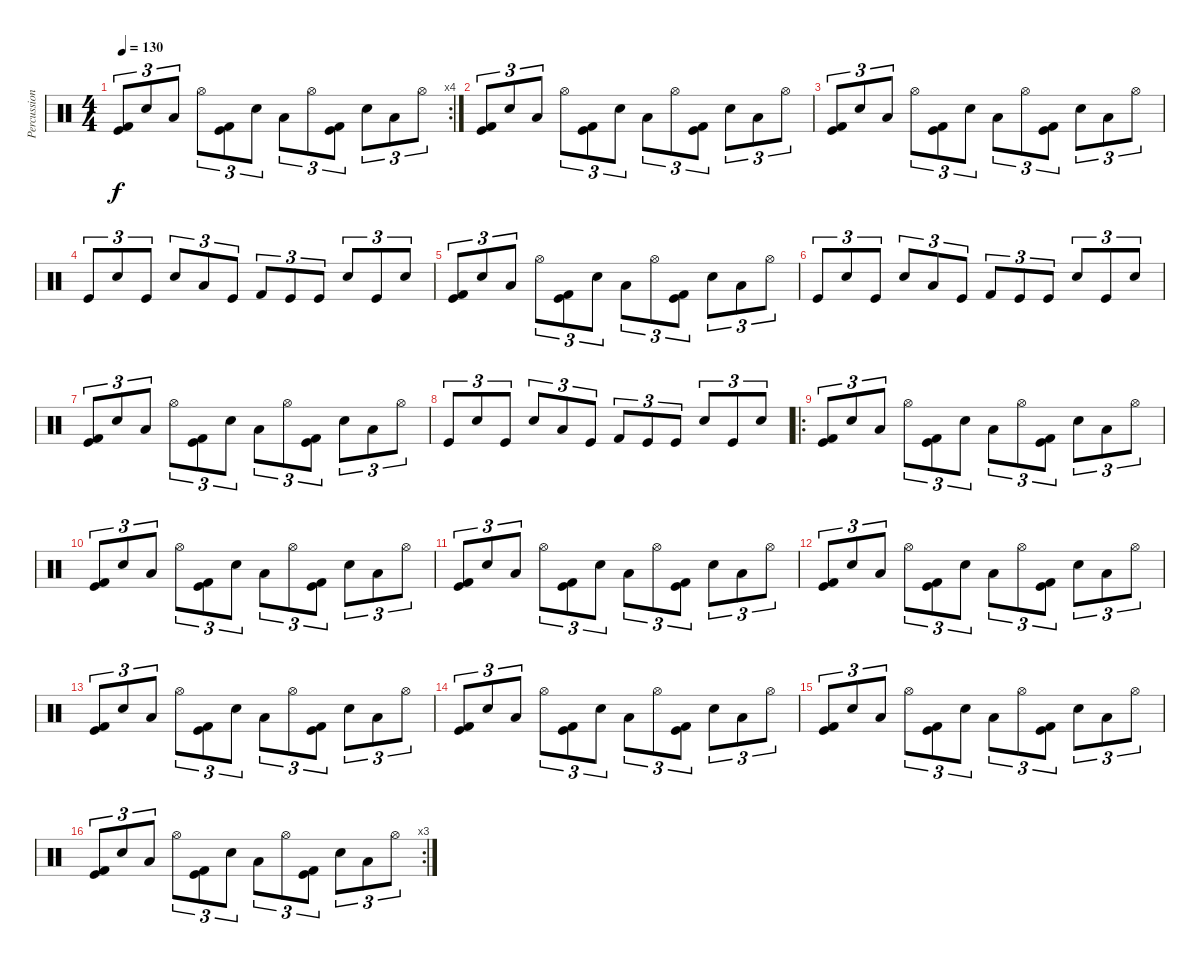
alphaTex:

\track ("Percussion" "Percussion") {instrument percussion}
\staff {score}
\articulation defaults
\rc 4
\ts (4 4)
\tempo 130
\clef neutral
\ks c
("Kick (hit)" "Kick (hit) 2").8{tu (3 2) dy f} "Snare (hit) 2".8{tu (3 2)} "Low Tom (hit)".8{tu (3 2)} "Hi-Hat (open)".8{tu (3 2)} ("Kick (hit)" "Kick (hit) 2").8{tu (3 2)} "Snare (hit) 2".8{tu (3 2)} "Low Tom (hit)".8{tu (3 2)} "Hi-Hat (open)".8{tu (3 2)} ("Kick (hit)" "Kick (hit) 2").8{tu (3 2)} "Snare (hit) 2".8{tu (3 2)} "Low Tom (hit)".8{tu (3 2)} "Hi-Hat (open)".8{tu (3 2)} |
("Kick (hit)" "Kick (hit) 2").8{tu (3 2)} "Snare (hit) 2".8{tu (3 2)} "Low Tom (hit)".8{tu (3 2)} "Hi-Hat (open)".8{tu (3 2)} ("Kick (hit)" "Kick (hit) 2").8{tu (3 2)} "Snare (hit) 2".8{tu (3 2)} "Low Tom (hit)".8{tu (3 2)} "Hi-Hat (open)".8{tu (3 2)} ("Kick (hit)" "Kick (hit) 2").8{tu (3 2)} "Snare (hit) 2".8{tu (3 2)} "Low Tom (hit)".8{tu (3 2)} "Hi-Hat (open)".8{tu (3 2)} |
("Kick (hit)" "Kick (hit) 2").8{tu (3 2)} "Snare (hit) 2".8{tu (3 2)} "Low Tom (hit)".8{tu (3 2)} "Hi-Hat (open)".8{tu (3 2)} ("Kick (hit)" "Kick (hit) 2").8{tu (3 2)} "Snare (hit) 2".8{tu (3 2)} "Low Tom (hit)".8{tu (3 2)} "Hi-Hat (open)".8{tu (3 2)} ("Kick (hit)" "Kick (hit) 2").8{tu (3 2)} "Snare (hit) 2".8{tu (3 2)} "Low Tom (hit)".8{tu (3 2)} "Hi-Hat (open)".8{tu (3 2)} |
"Kick (hit)".8{tu (3 2)} "Snare (hit) 2".8{tu (3 2)} "Kick (hit)".8{tu (3 2)} "Snare (hit) 2".8{tu (3 2)} "Low Tom (hit)".8{tu (3 2)} "Kick (hit)".8{tu (3 2)} "Kick (hit) 2".8{tu (3 2)} "Kick (hit)".8{tu (3 2)} "Kick (hit)".8{tu (3 2)} "Snare (hit) 2".8{tu (3 2)} "Kick (hit)".8{tu (3 2)} "Snare (hit) 2".8{tu (3 2)} |
("Kick (hit)" "Kick (hit) 2").8{tu (3 2)} "Snare (hit) 2".8{tu (3 2)} "Low Tom (hit)".8{tu (3 2)} "Hi-Hat (open)".8{tu (3 2)} ("Kick (hit)" "Kick (hit) 2").8{tu (3 2)} "Snare (hit) 2".8{tu (3 2)} "Low Tom (hit)".8{tu (3 2)} "Hi-Hat (open)".8{tu (3 2)} ("Kick (hit)" "Kick (hit) 2").8{tu (3 2)} "Snare (hit) 2".8{tu (3 2)} "Low Tom (hit)".8{tu (3 2)} "Hi-Hat (open)".8{tu (3 2)} |
"Kick (hit)".8{tu (3 2)} "Snare (hit) 2".8{tu (3 2)} "Kick (hit)".8{tu (3 2)} "Snare (hit) 2".8{tu (3 2)} "Low Tom (hit)".8{tu (3 2)} "Kick (hit)".8{tu (3 2)} "Kick (hit) 2".8{tu (3 2)} "Kick (hit)".8{tu (3 2)} "Kick (hit)".8{tu (3 2)} "Snare (hit) 2".8{tu (3 2)} "Kick (hit)".8{tu (3 2)} "Snare (hit) 2".8{tu (3 2)} |
("Kick (hit)" "Kick (hit) 2").8{tu (3 2)} "Snare (hit) 2".8{tu (3 2)} "Low Tom (hit)".8{tu (3 2)} "Hi-Hat (open)".8{tu (3 2)} ("Kick (hit)" "Kick (hit) 2").8{tu (3 2)} "Snare (hit) 2".8{tu (3 2)} "Low Tom (hit)".8{tu (3 2)} "Hi-Hat (open)".8{tu (3 2)} ("Kick (hit)" "Kick (hit) 2").8{tu (3 2)} "Snare (hit) 2".8{tu (3 2)} "Low Tom (hit)".8{tu (3 2)} "Hi-Hat (open)".8{tu (3 2)} |
"Kick (hit)".8{tu (3 2)} "Snare (hit) 2".8{tu (3 2)} "Kick (hit)".8{tu (3 2)} "Snare (hit) 2".8{tu (3 2)} "Low Tom (hit)".8{tu (3 2)} "Kick (hit)".8{tu (3 2)} "Kick (hit) 2".8{tu (3 2)} "Kick (hit)".8{tu (3 2)} "Kick (hit)".8{tu (3 2)} "Snare (hit) 2".8{tu (3 2)} "Kick (hit)".8{tu (3 2)} "Snare (hit) 2".8{tu (3 2)} |
\ro
("Kick (hit)" "Kick (hit) 2").8{tu (3 2)} "Snare (hit) 2".8{tu (3 2)} "Low Tom (hit)".8{tu (3 2)} "Hi-Hat (open)".8{tu (3 2)} ("Kick (hit)" "Kick (hit) 2").8{tu (3 2)} "Snare (hit) 2".8{tu (3 2)} "Low Tom (hit)".8{tu (3 2)} "Hi-Hat (open)".8{tu (3 2)} ("Kick (hit)" "Kick (hit) 2").8{tu (3 2)} "Snare (hit) 2".8{tu (3 2)} "Low Tom (hit)".8{tu (3 2)} "Hi-Hat (open)".8{tu (3 2)} |
("Kick (hit)" "Kick (hit) 2").8{tu (3 2)} "Snare (hit) 2".8{tu (3 2)} "Low Tom (hit)".8{tu (3 2)} "Hi-Hat (open)".8{tu (3 2)} ("Kick (hit)" "Kick (hit) 2").8{tu (3 2)} "Snare (hit) 2".8{tu (3 2)} "Low Tom (hit)".8{tu (3 2)} "Hi-Hat (open)".8{tu (3 2)} ("Kick (hit)" "Kick (hit) 2").8{tu (3 2)} "Snare (hit) 2".8{tu (3 2)} "Low Tom (hit)".8{tu (3 2)} "Hi-Hat (open)".8{tu (3 2)} |
("Kick (hit)" "Kick (hit) 2").8{tu (3 2)} "Snare (hit) 2".8{tu (3 2)} "Low Tom (hit)".8{tu (3 2)} "Hi-Hat (open)".8{tu (3 2)} ("Kick (hit)" "Kick (hit) 2").8{tu (3 2)} "Snare (hit) 2".8{tu (3 2)} "Low Tom (hit)".8{tu (3 2)} "Hi-Hat (open)".8{tu (3 2)} ("Kick (hit)" "Kick (hit) 2").8{tu (3 2)} "Snare (hit) 2".8{tu (3 2)} "Low Tom (hit)".8{tu (3 2)} "Hi-Hat (open)".8{tu (3 2)} |
("Kick (hit)" "Kick (hit) 2").8{tu (3 2)} "Snare (hit) 2".8{tu (3 2)} "Low Tom (hit)".8{tu (3 2)} "Hi-Hat (open)".8{tu (3 2)} ("Kick (hit)" "Kick (hit) 2").8{tu (3 2)} "Snare (hit) 2".8{tu (3 2)} "Low Tom (hit)".8{tu (3 2)} "Hi-Hat (open)".8{tu (3 2)} ("Kick (hit)" "Kick (hit) 2").8{tu (3 2)} "Snare (hit) 2".8{tu (3 2)} "Low Tom (hit)".8{tu (3 2)} "Hi-Hat (open)".8{tu (3 2)} |
("Kick (hit)" "Kick (hit) 2").8{tu (3 2)} "Snare (hit) 2".8{tu (3 2)} "Low Tom (hit)".8{tu (3 2)} "Hi-Hat (open)".8{tu (3 2)} ("Kick (hit)" "Kick (hit) 2").8{tu (3 2)} "Snare (hit) 2".8{tu (3 2)} "Low Tom (hit)".8{tu (3 2)} "Hi-Hat (open)".8{tu (3 2)} ("Kick (hit)" "Kick (hit) 2").8{tu (3 2)} "Snare (hit) 2".8{tu (3 2)} "Low Tom (hit)".8{tu (3 2)} "Hi-Hat (open)".8{tu (3 2)} |
("Kick (hit)" "Kick (hit) 2").8{tu (3 2)} "Snare (hit) 2".8{tu (3 2)} "Low Tom (hit)".8{tu (3 2)} "Hi-Hat (open)".8{tu (3 2)} ("Kick (hit)" "Kick (hit) 2").8{tu (3 2)} "Snare (hit) 2".8{tu (3 2)} "Low Tom (hit)".8{tu (3 2)} "Hi-Hat (open)".8{tu (3 2)} ("Kick (hit)" "Kick (hit) 2").8{tu (3 2)} "Snare (hit) 2".8{tu (3 2)} "Low Tom (hit)".8{tu (3 2)} "Hi-Hat (open)".8{tu (3 2)} |
("Kick (hit)" "Kick (hit) 2").8{tu (3 2)} "Snare (hit) 2".8{tu (3 2)} "Low Tom (hit)".8{tu (3 2)} "Hi-Hat (open)".8{tu (3 2)} ("Kick (hit)" "Kick (hit) 2").8{tu (3 2)} "Snare (hit) 2".8{tu (3 2)} "Low Tom (hit)".8{tu (3 2)} "Hi-Hat (open)".8{tu (3 2)} ("Kick (hit)" "Kick (hit) 2").8{tu (3 2)} "Snare (hit) 2".8{tu (3 2)} "Low Tom (hit)".8{tu (3 2)} "Hi-Hat (open)".8{tu (3 2)} |
\rc 3
("Kick (hit)" "Kick (hit) 2").8{tu (3 2)} "Snare (hit) 2".8{tu (3 2)} "Low Tom (hit)".8{tu (3 2)} "Hi-Hat (open)".8{tu (3 2)} ("Kick (hit)" "Kick (hit) 2").8{tu (3 2)} "Snare (hit) 2".8{tu (3 2)} "Low Tom (hit)".8{tu (3 2)} "Hi-Hat (open)".8{tu (3 2)} ("Kick (hit)" "Kick (hit) 2").8{tu (3 2)} "Snare (hit) 2".8{tu (3 2)} "Low Tom (hit)".8{tu (3 2)} "Hi-Hat (open)".8{tu (3 2)}
